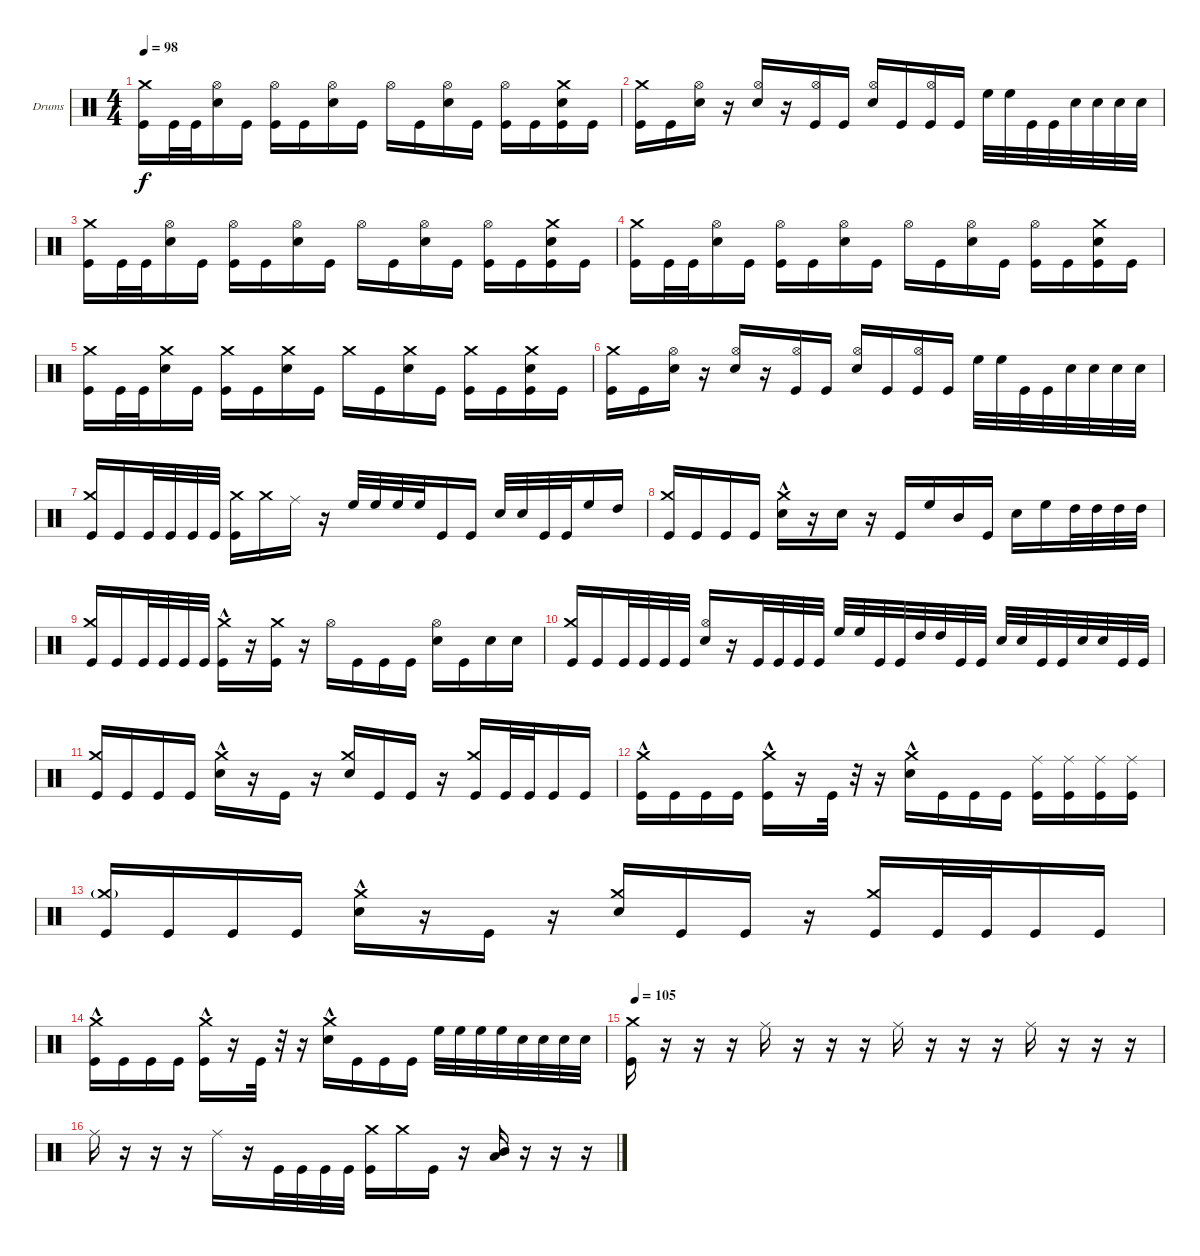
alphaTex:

\defaultSystemsLayout 4
\bracketExtendMode groupsimilarinstruments
\firstSystemTrackNameOrientation horizontal
\otherSystemsTrackNameOrientation horizontal
\track ("Drumkit" "Drums") {instrument percussion}
\staff {score}
\articulation defaults
\ts (4 4)
\tempo 98
\clef neutral
\ks c
("Kick (hit)" "Crash medium (hit)").16{dy f} "Kick (hit)".32 "Kick (hit)".32 ("Snare (hit) 2" "Hi-Hat (open)").16 "Kick (hit)".16 ("Hi-Hat (open)" "Kick (hit)").16 "Kick (hit)".16 ("Snare (hit) 2" "Hi-Hat (open)").16 "Kick (hit)".16 "Hi-Hat (open)".16 "Kick (hit)".16 ("Snare (hit) 2" "Hi-Hat (open)").16 "Kick (hit)".16 ("Kick (hit)" "Hi-Hat (open)").16 "Kick (hit)".16 ("Kick (hit)" "Snare (hit) 2" "Crash medium (hit)").16 "Kick (hit)".16 |
("Kick (hit)" "Crash medium (hit)").16 "Kick (hit)".16 ("Snare (hit) 2" "Hi-Hat (open)").16 r.16 ("Hi-Hat (open)" "Snare (hit) 2").16 r.16 ("Hi-Hat (open)" "Kick (hit)").16 "Kick (hit)".16 ("Snare (hit) 2" "Hi-Hat (open)").16{beam invert} "Kick (hit)".16 ("Kick (hit)" "Hi-Hat (open)").16 "Kick (hit)".16 "High Floor Tom (hit)".32{beam invert} "High Floor Tom (hit)".32 "Kick (hit)".32 "Kick (hit)".32 "Snare (hit) 2".32 "Snare (hit) 2".32 "Snare (hit) 2".32 "Snare (hit) 2".32 |
("Kick (hit)" "Crash medium (hit)").16 "Kick (hit)".32 "Kick (hit)".32 ("Snare (hit) 2" "Hi-Hat (open)").16 "Kick (hit)".16 ("Hi-Hat (open)" "Kick (hit)").16 "Kick (hit)".16 ("Snare (hit) 2" "Hi-Hat (open)").16 "Kick (hit)".16 "Hi-Hat (open)".16 "Kick (hit)".16 ("Snare (hit) 2" "Hi-Hat (open)").16 "Kick (hit)".16 ("Kick (hit)" "Hi-Hat (open)").16 "Kick (hit)".16 ("Kick (hit)" "Snare (hit) 2" "Crash medium (hit)").16 "Kick (hit)".16 |
("Kick (hit)" "Crash medium (hit)").16 "Kick (hit)".32 "Kick (hit)".32 ("Snare (hit) 2" "Hi-Hat (open)").16 "Kick (hit)".16 ("Hi-Hat (open)" "Kick (hit)").16 "Kick (hit)".16 ("Snare (hit) 2" "Hi-Hat (open)").16 "Kick (hit)".16 "Hi-Hat (open)".16 "Kick (hit)".16 ("Snare (hit) 2" "Hi-Hat (open)").16 "Kick (hit)".16 ("Kick (hit)" "Hi-Hat (open)").16 "Kick (hit)".16 ("Kick (hit)" "Snare (hit) 2" "Crash medium (hit)").16 "Kick (hit)".16 |
("Kick (hit)" "Crash medium (hit)").16 "Kick (hit)".32 "Kick (hit)".32 ("Snare (hit) 2" "Crash medium (hit)").16 "Kick (hit)".16 ("Kick (hit)" "Crash medium (hit)").16 "Kick (hit)".16 ("Snare (hit) 2" "Crash medium (hit)").16 "Kick (hit)".16 "Crash medium (hit)".16 "Kick (hit)".16 ("Snare (hit) 2" "Crash medium (hit)").16 "Kick (hit)".16 ("Kick (hit)" "Crash medium (hit)").16 "Kick (hit)".16 ("Kick (hit)" "Snare (hit) 2" "Crash medium (hit)").16 "Kick (hit)".16 |
("Kick (hit)" "Crash medium (hit)").16 "Kick (hit)".16 ("Snare (hit) 2" "Hi-Hat (open)").16 r.16 ("Hi-Hat (open)" "Snare (hit) 2").16 r.16 ("Hi-Hat (open)" "Kick (hit)").16 "Kick (hit)".16 ("Snare (hit) 2" "Hi-Hat (open)").16{beam invert} "Kick (hit)".16 ("Kick (hit)" "Hi-Hat (open)").16 "Kick (hit)".16 "High Floor Tom (hit)".32{beam invert} "High Floor Tom (hit)".32 "Kick (hit)".32 "Kick (hit)".32 "Snare (hit) 2".32 "Snare (hit) 2".32 "Snare (hit) 2".32 "Snare (hit) 2".32 |
("Kick (hit)" "Crash medium (hit)").16{beam invert} "Kick (hit)".16 "Kick (hit)".32 "Kick (hit)".32 "Kick (hit)".32 "Kick (hit)".32 ("Crash medium (hit)" "Kick (hit)").16 "Crash medium (hit)".16 "Ride (middle)".16 r.16 "High Floor Tom (hit)".32 "High Floor Tom (hit)".32 "High Floor Tom (hit)".32 "High Floor Tom (hit)".32 "Kick (hit)".16 "Kick (hit)".16 "Snare (hit) 2".32 "Snare (hit) 2".32 "Kick (hit)".32 "Kick (hit)".32 "High Floor Tom (hit)".16 "High Tom (hit)".16 |
("Kick (hit)" "Crash medium (hit)").16{beam invert} "Kick (hit)".16 "Kick (hit)".16 "Kick (hit)".16 ("Snare (hit) 2" "Crash medium (hit)"{hac}).16 r.16 "Snare (hit) 2".16 r.16 "Kick (hit)".16 "High Floor Tom (hit)".16 "Mid Tom (hit)".16 "Kick (hit)".16 "Snare (hit) 2".16 "High Floor Tom (hit)".16 "High Tom (hit)".32 "High Tom (hit)".32 "High Tom (hit)".32 "High Tom (hit)".32 |
("Kick (hit)" "Crash medium (hit)").16{beam invert} "Kick (hit)".16 "Kick (hit)".32 "Kick (hit)".32 "Kick (hit)".32 "Kick (hit)".32 ("Crash medium (hit)"{hac} "Kick (hit)").16 r.16 ("Crash medium (hit)" "Kick (hit)").16 r.16 "Hi-Hat (open)".16 "Kick (hit)".16 "Kick (hit)".16 "Kick (hit)".16 ("Snare (hit) 2" "Hi-Hat (open)").16 "Kick (hit)".16 "Snare (hit) 2".16 "Snare (hit) 2".16 |
("Kick (hit)" "Crash medium (hit)").16{beam invert} "Kick (hit)".16 "Kick (hit)".32 "Kick (hit)".32 "Kick (hit)".32 "Kick (hit)".32 ("Hi-Hat (open)" "Snare (hit) 2").16{beam invert} r.16 "Kick (hit)".32 "Kick (hit)".32 "Kick (hit)".32 "Kick (hit)".32{beam invert} "High Floor Tom (hit)".32 "High Floor Tom (hit)".32 "Kick (hit)".32 "Kick (hit)".32 "High Tom (hit)".32 "High Tom (hit)".32 "Kick (hit)".32 "Kick (hit)".32 "Snare (hit) 2".32 "Snare (hit) 2".32 "Kick (hit)".32 "Kick (hit)".32 "Snare (hit) 2".32 "Snare (hit) 2".32 "Kick (hit)".32 "Kick (hit)".32 |
("Kick (hit)" "Crash medium (hit)").16{beam invert} "Kick (hit)".16 "Kick (hit)".16 "Kick (hit)".16 ("Snare (hit) 2" "Crash medium (hit)"{hac}).16 r.16 "Kick (hit)".16 r.16 ("Snare (hit) 2" "Crash medium (hit)").16 "Kick (hit)".16 "Kick (hit)".16 r.16 ("Kick (hit)" "Crash medium (hit)").16{beam invert} "Kick (hit)".32 "Kick (hit)".32 "Kick (hit)".16 "Kick (hit)".16 |
("Crash medium (hit)"{hac} "Kick (hit)").16 "Kick (hit)".16 "Kick (hit)".16 "Kick (hit)".16 ("Kick (hit)" "Crash medium (hit)"{hac}).16 r.16 "Kick (hit)".32 r.32 r.16 ("Snare (hit) 2" "Crash medium (hit)"{hac}).16 "Kick (hit)".16 "Kick (hit)".16 "Kick (hit)".16 ("Kick (hit)" "Ride (middle)").16 ("Kick (hit)" "Ride (middle)").16 ("Kick (hit)" "Ride (middle)").16 ("Kick (hit)" "Ride (middle)").16 |
("Kick (hit)" "Crash medium (hit)"{g}).16{beam invert} "Kick (hit)".16 "Kick (hit)".16 "Kick (hit)".16 ("Snare (hit) 2" "Crash medium (hit)"{hac}).16 r.16 "Kick (hit)".16 r.16 ("Snare (hit) 2" "Crash medium (hit)").16 "Kick (hit)".16 "Kick (hit)".16 r.16 ("Kick (hit)" "Crash medium (hit)").16{beam invert} "Kick (hit)".32 "Kick (hit)".32 "Kick (hit)".16 "Kick (hit)".16 |
("Crash medium (hit)"{hac} "Kick (hit)").16 "Kick (hit)".16 "Kick (hit)".16 "Kick (hit)".16 ("Kick (hit)" "Crash medium (hit)"{hac}).16 r.16 "Kick (hit)".32 r.32 r.16 ("Snare (hit) 2" "Crash medium (hit)"{hac}).16 "Kick (hit)".16 "Kick (hit)".16 "Kick (hit)".16 "High Floor Tom (hit)".32 "High Floor Tom (hit)".32 "High Floor Tom (hit)".32 "High Floor Tom (hit)".32 "Snare (hit) 2".32 "Snare (hit) 2".32 "Snare (hit) 2".32 "Snare (hit) 2".32 |
\tempo (105 0.00625)
("Crash medium (hit)" "Kick (hit)").16 r.16 r.16 r.16 "Ride (middle)".16 r.16 r.16 r.16 "Ride (middle)".16 r.16 r.16 r.16 "Ride (middle)".16 r.16 r.16 r.16 |
"Ride (middle)".16 r.16 r.16 r.16 "Ride (middle)".16 r.16 "Kick (hit)".32 "Kick (hit)".32 "Kick (hit)".32 "Kick (hit)".32 ("Kick (hit)" "Crash medium (hit)").16 "Crash medium (hit)".16 "Kick (hit)".16 r.16 ("Mid Tom (hit)" "Low Tom (hit)").16 r.16 r.16 r.16
